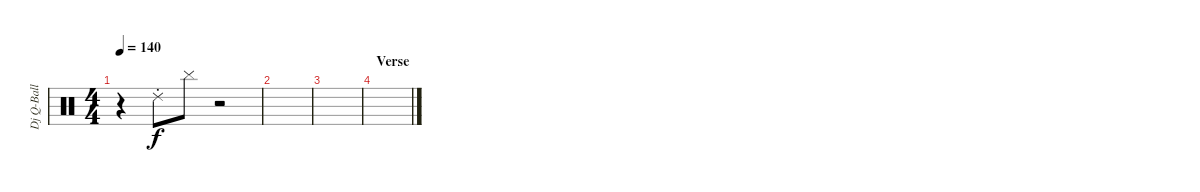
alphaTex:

\track ("Dj Q-Ball" "Dj Q-Ball") {instrument percussion}
\staff {score}
\articulation defaults
\ts (4 4)
\tempo 140
\clef neutral
\ks c
r.4{dy f} "Ride (choke) 2".8 "Cymbal (hit)".8 r.2 |
|
|
\section ("" "Verse")
